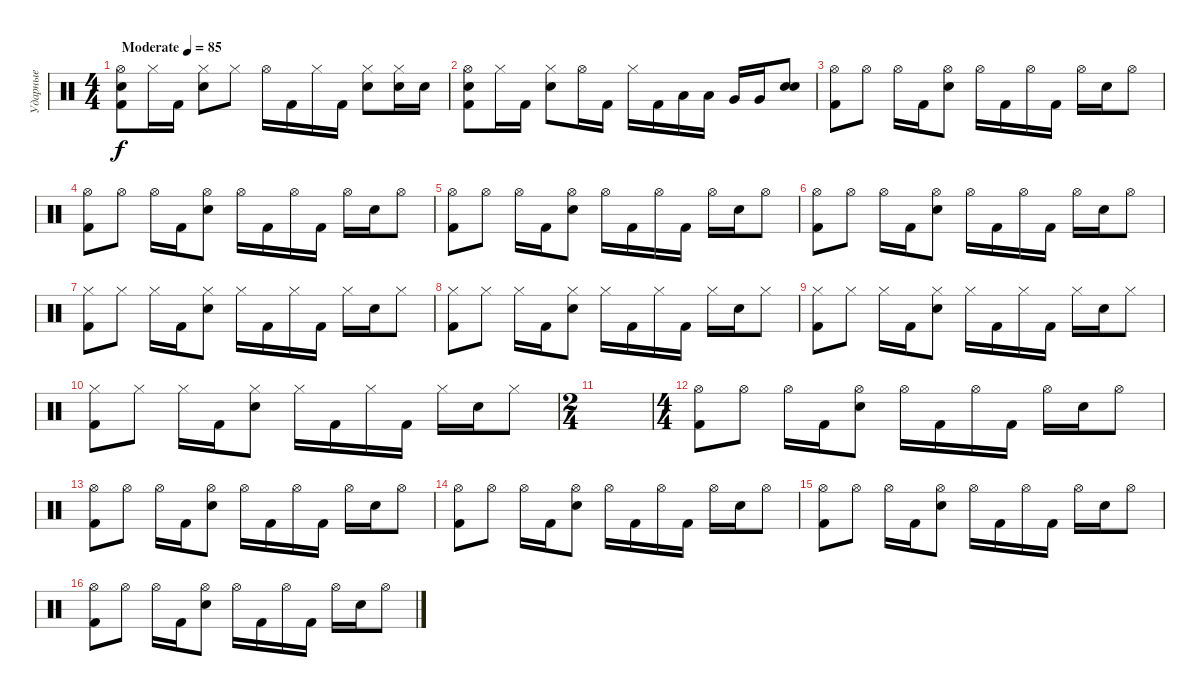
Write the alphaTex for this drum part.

\track ("Ударные" "Ударные") {instrument percussion}
\staff {score}
\articulation defaults
\ts (4 4)
\tempo (85 "Moderate")
\clef neutral
\ks c
("Hi-Hat (open)" "Electric Snare (hit)" "Kick (hit) 2").8{dy f} "Hi-Hat (closed)".16 "Kick (hit) 2".16 ("Hi-Hat (closed)" "Electric Snare (hit)").8 "Hi-Hat (closed)".8 "Hi-Hat (open)".16 "Kick (hit) 2".16 "Hi-Hat (closed)".16 "Kick (hit) 2".16 ("Hi-Hat (closed)" "Electric Snare (hit)").8 ("Hi-Hat (closed)" "Electric Snare (hit)").16 "Electric Snare (hit)".16 |
("Hi-Hat (open)" "Electric Snare (hit)" "Kick (hit) 2").8 "Hi-Hat (closed)".16 "Kick (hit) 2".16 ("Hi-Hat (closed)" "Electric Snare (hit)").8 "Hi-Hat (open)".16 "Kick (hit) 2".16 "Hi-Hat (closed)".16 "Kick (hit) 2".16 "Low Floor Tom (hit)".16 "Low Floor Tom (hit)".16 "Very Low Tom (hit)".16 "Very Low Tom (hit)".16 ("Snare (hit) 2" "Electric Snare (hit)").8 |
("Hi-Hat (open)" "Kick (hit) 2").8 "Hi-Hat (open)".8 "Hi-Hat (open)".16 "Kick (hit) 2".16 ("Hi-Hat (open)" "Electric Snare (hit)").8 "Hi-Hat (open)".16 "Kick (hit) 2".16 "Hi-Hat (open)".16 "Kick (hit) 2".16 "Hi-Hat (open)".16 "Electric Snare (hit)".16 "Hi-Hat (open)".8 |
("Hi-Hat (open)" "Kick (hit) 2").8 "Hi-Hat (open)".8 "Hi-Hat (open)".16 "Kick (hit) 2".16 ("Hi-Hat (open)" "Electric Snare (hit)").8 "Hi-Hat (open)".16 "Kick (hit) 2".16 "Hi-Hat (open)".16 "Kick (hit) 2".16 "Hi-Hat (open)".16 "Electric Snare (hit)".16 "Hi-Hat (open)".8 |
("Hi-Hat (open)" "Kick (hit) 2").8 "Hi-Hat (open)".8 "Hi-Hat (open)".16 "Kick (hit) 2".16 ("Hi-Hat (open)" "Electric Snare (hit)").8 "Hi-Hat (open)".16 "Kick (hit) 2".16 "Hi-Hat (open)".16 "Kick (hit) 2".16 "Hi-Hat (open)".16 "Electric Snare (hit)".16 "Hi-Hat (open)".8 |
("Hi-Hat (open)" "Kick (hit) 2").8 "Hi-Hat (open)".8 "Hi-Hat (open)".16 "Kick (hit) 2".16 ("Hi-Hat (open)" "Electric Snare (hit)").8 "Hi-Hat (open)".16 "Kick (hit) 2".16 "Hi-Hat (open)".16 "Kick (hit) 2".16 "Hi-Hat (open)".16 "Electric Snare (hit)".16 "Hi-Hat (open)".8 |
("Hi-Hat (closed)" "Kick (hit) 2").8 "Hi-Hat (closed)".8 "Hi-Hat (closed)".16 "Kick (hit) 2".16 ("Hi-Hat (closed)" "Electric Snare (hit)").8 "Hi-Hat (closed)".16 "Kick (hit) 2".16 "Hi-Hat (closed)".16 "Kick (hit) 2".16 "Hi-Hat (closed)".16 "Electric Snare (hit)".16 "Hi-Hat (closed)".8 |
("Hi-Hat (closed)" "Kick (hit) 2").8 "Hi-Hat (closed)".8 "Hi-Hat (closed)".16 "Kick (hit) 2".16 ("Hi-Hat (closed)" "Electric Snare (hit)").8 "Hi-Hat (closed)".16 "Kick (hit) 2".16 "Hi-Hat (closed)".16 "Kick (hit) 2".16 "Hi-Hat (closed)".16 "Electric Snare (hit)".16 "Hi-Hat (closed)".8 |
("Hi-Hat (closed)" "Kick (hit) 2").8 "Hi-Hat (closed)".8 "Hi-Hat (closed)".16 "Kick (hit) 2".16 ("Hi-Hat (closed)" "Electric Snare (hit)").8 "Hi-Hat (closed)".16 "Kick (hit) 2".16 "Hi-Hat (closed)".16 "Kick (hit) 2".16 "Hi-Hat (closed)".16 "Electric Snare (hit)".16 "Hi-Hat (closed)".8 |
("Hi-Hat (closed)" "Kick (hit) 2").8 "Hi-Hat (closed)".8 "Hi-Hat (closed)".16 "Kick (hit) 2".16 ("Hi-Hat (closed)" "Electric Snare (hit)").8 "Hi-Hat (closed)".16 "Kick (hit) 2".16 "Hi-Hat (closed)".16 "Kick (hit) 2".16 "Hi-Hat (closed)".16 "Electric Snare (hit)".16 "Hi-Hat (closed)".8 |
\ts (2 4)
|
\ts (4 4)
("Hi-Hat (open)" "Kick (hit) 2").8 "Hi-Hat (open)".8 "Hi-Hat (open)".16 "Kick (hit) 2".16 ("Hi-Hat (open)" "Electric Snare (hit)").8 "Hi-Hat (open)".16 "Kick (hit) 2".16 "Hi-Hat (open)".16 "Kick (hit) 2".16 "Hi-Hat (open)".16 "Electric Snare (hit)".16 "Hi-Hat (open)".8 |
("Hi-Hat (open)" "Kick (hit) 2").8 "Hi-Hat (open)".8 "Hi-Hat (open)".16 "Kick (hit) 2".16 ("Hi-Hat (open)" "Electric Snare (hit)").8 "Hi-Hat (open)".16 "Kick (hit) 2".16 "Hi-Hat (open)".16 "Kick (hit) 2".16 "Hi-Hat (open)".16 "Electric Snare (hit)".16 "Hi-Hat (open)".8 |
("Hi-Hat (open)" "Kick (hit) 2").8 "Hi-Hat (open)".8 "Hi-Hat (open)".16 "Kick (hit) 2".16 ("Hi-Hat (open)" "Electric Snare (hit)").8 "Hi-Hat (open)".16 "Kick (hit) 2".16 "Hi-Hat (open)".16 "Kick (hit) 2".16 "Hi-Hat (open)".16 "Electric Snare (hit)".16 "Hi-Hat (open)".8 |
("Hi-Hat (open)" "Kick (hit) 2").8 "Hi-Hat (open)".8 "Hi-Hat (open)".16 "Kick (hit) 2".16 ("Hi-Hat (open)" "Electric Snare (hit)").8 "Hi-Hat (open)".16 "Kick (hit) 2".16 "Hi-Hat (open)".16 "Kick (hit) 2".16 "Hi-Hat (open)".16 "Electric Snare (hit)".16 "Hi-Hat (open)".8 |
("Hi-Hat (open)" "Kick (hit) 2").8 "Hi-Hat (open)".8 "Hi-Hat (open)".16 "Kick (hit) 2".16 ("Hi-Hat (open)" "Electric Snare (hit)").8 "Hi-Hat (open)".16 "Kick (hit) 2".16 "Hi-Hat (open)".16 "Kick (hit) 2".16 "Hi-Hat (open)".16 "Electric Snare (hit)".16 "Hi-Hat (open)".8
